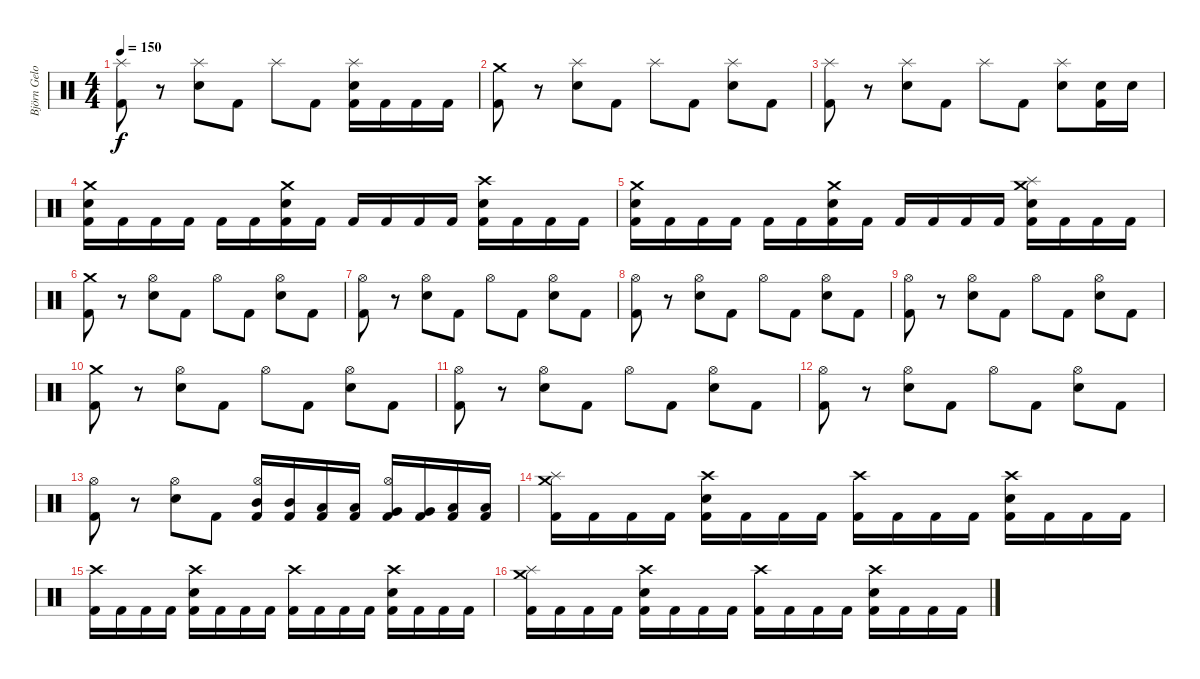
\track ("Björn Gelotte" "Björn Gelo") {instrument percussion}
\staff {score}
\articulation defaults
\ts (4 4)
\tempo 150
\clef neutral
\ks c
("Splash (hit)" "Kick (hit) 2").8{dy f} r.8 ("Splash (hit)" "Electric Snare (hit)").8 "Kick (hit) 2".8 "Splash (hit)".8 "Kick (hit) 2".8 ("Splash (hit)" "Electric Snare (hit)" "Kick (hit) 2").16 "Kick (hit) 2".16 "Kick (hit) 2".16 "Kick (hit) 2".16 |
("Crash medium (hit)" "Kick (hit) 2").8 r.8 ("Splash (hit)" "Electric Snare (hit)").8 "Kick (hit) 2".8 "Splash (hit)".8 "Kick (hit) 2".8 ("Splash (hit)" "Electric Snare (hit)").8 "Kick (hit) 2".8 |
("Splash (hit)" "Kick (hit) 2").8 r.8 ("Splash (hit)" "Electric Snare (hit)").8 "Kick (hit) 2".8 "Splash (hit)".8 "Kick (hit) 2".8 ("Splash (hit)" "Electric Snare (hit)").8 ("Electric Snare (hit)" "Kick (hit) 2").16 "Electric Snare (hit)".16 |
("Crash medium (hit)" "Electric Snare (hit)" "Kick (hit) 2").16 "Kick (hit) 2".16 "Kick (hit) 2".16 "Kick (hit) 2".16 "Kick (hit) 2".16 "Kick (hit) 2".16 ("Crash medium (hit)" "Electric Snare (hit)" "Kick (hit) 2").16 "Kick (hit) 2".16 "Kick (hit) 2".16 "Kick (hit) 2".16 "Kick (hit) 2".16 "Kick (hit) 2".16 ("Crash high (hit)" "Electric Snare (hit)" "Kick (hit) 2").16 "Kick (hit) 2".16 "Kick (hit) 2".16 "Kick (hit) 2".16 |
("Crash medium (hit)" "Electric Snare (hit)" "Kick (hit) 2").16 "Kick (hit) 2".16 "Kick (hit) 2".16 "Kick (hit) 2".16 "Kick (hit) 2".16 "Kick (hit) 2".16 ("Crash medium (hit)" "Electric Snare (hit)" "Kick (hit) 2").16 "Kick (hit) 2".16 "Kick (hit) 2".16 "Kick (hit) 2".16 "Kick (hit) 2".16 "Kick (hit) 2".16 ("Crash medium (hit)" "Splash (hit)" "Electric Snare (hit)" "Kick (hit) 2").16 "Kick (hit) 2".16 "Kick (hit) 2".16 "Kick (hit) 2".16 |
("Crash medium (hit)" "Kick (hit) 2").8 r.8 ("Hi-Hat (open)" "Electric Snare (hit)").8 "Kick (hit) 2".8 "Hi-Hat (open)".8 "Kick (hit) 2".8 ("Hi-Hat (open)" "Electric Snare (hit)").8 "Kick (hit) 2".8 |
("Hi-Hat (open)" "Kick (hit) 2").8 r.8 ("Hi-Hat (open)" "Electric Snare (hit)").8 "Kick (hit) 2".8 "Hi-Hat (open)".8 "Kick (hit) 2".8 ("Hi-Hat (open)" "Electric Snare (hit)").8 "Kick (hit) 2".8 |
("Hi-Hat (open)" "Kick (hit) 2").8 r.8 ("Hi-Hat (open)" "Electric Snare (hit)").8 "Kick (hit) 2".8 "Hi-Hat (open)".8 "Kick (hit) 2".8 ("Hi-Hat (open)" "Electric Snare (hit)").8 "Kick (hit) 2".8 |
("Hi-Hat (open)" "Kick (hit) 2").8 r.8 ("Hi-Hat (open)" "Electric Snare (hit)").8 "Kick (hit) 2".8 "Hi-Hat (open)".8 "Kick (hit) 2".8 ("Hi-Hat (open)" "Electric Snare (hit)").8 "Kick (hit) 2".8 |
("Crash medium (hit)" "Kick (hit) 2").8 r.8 ("Hi-Hat (open)" "Electric Snare (hit)").8 "Kick (hit) 2".8 "Hi-Hat (open)".8 "Kick (hit) 2".8 ("Hi-Hat (open)" "Electric Snare (hit)").8 "Kick (hit) 2".8 |
("Hi-Hat (open)" "Kick (hit) 2").8 r.8 ("Hi-Hat (open)" "Electric Snare (hit)").8 "Kick (hit) 2".8 "Hi-Hat (open)".8 "Kick (hit) 2".8 ("Hi-Hat (open)" "Electric Snare (hit)").8 "Kick (hit) 2".8 |
("Hi-Hat (open)" "Kick (hit) 2").8 r.8 ("Hi-Hat (open)" "Electric Snare (hit)").8 "Kick (hit) 2".8 "Hi-Hat (open)".8 "Kick (hit) 2".8 ("Hi-Hat (open)" "Electric Snare (hit)").8 "Kick (hit) 2".8 |
("Hi-Hat (open)" "Kick (hit) 2").8 r.8 ("Hi-Hat (open)" "Electric Snare (hit)").8 "Kick (hit) 2".8 ("Hi-Hat (open)" "Mid Tom (hit)" "Kick (hit) 2").16 ("Mid Tom (hit)" "Kick (hit) 2").16 ("Low Tom (hit)" "Kick (hit) 2").16 ("Low Tom (hit)" "Kick (hit) 2").16 ("Hi-Hat (open)" "Very Low Tom (hit)" "Kick (hit) 2").16 ("Very Low Tom (hit)" "Kick (hit) 2").16 ("Low Floor Tom (hit)" "Kick (hit) 2").16 ("Low Floor Tom (hit)" "Kick (hit) 2").16 |
("Crash medium (hit)" "Splash (hit)" "Kick (hit) 2").16 "Kick (hit) 2".16 "Kick (hit) 2".16 "Kick (hit) 2".16 ("Crash high (hit)" "Electric Snare (hit)" "Kick (hit) 2").16 "Kick (hit) 2".16 "Kick (hit) 2".16 "Kick (hit) 2".16 ("Crash high (hit)" "Kick (hit) 2").16 "Kick (hit) 2".16 "Kick (hit) 2".16 "Kick (hit) 2".16 ("Crash high (hit)" "Electric Snare (hit)" "Kick (hit) 2").16 "Kick (hit) 2".16 "Kick (hit) 2".16 "Kick (hit) 2".16 |
("Crash high (hit)" "Kick (hit) 2").16 "Kick (hit) 2".16 "Kick (hit) 2".16 "Kick (hit) 2".16 ("Crash high (hit)" "Electric Snare (hit)" "Kick (hit) 2").16 "Kick (hit) 2".16 "Kick (hit) 2".16 "Kick (hit) 2".16 ("Crash high (hit)" "Kick (hit) 2").16 "Kick (hit) 2".16 "Kick (hit) 2".16 "Kick (hit) 2".16 ("Crash high (hit)" "Electric Snare (hit)" "Kick (hit) 2").16 "Kick (hit) 2".16 "Kick (hit) 2".16 "Kick (hit) 2".16 |
("Crash medium (hit)" "Splash (hit)" "Kick (hit) 2").16 "Kick (hit) 2".16 "Kick (hit) 2".16 "Kick (hit) 2".16 ("Crash high (hit)" "Electric Snare (hit)" "Kick (hit) 2").16 "Kick (hit) 2".16 "Kick (hit) 2".16 "Kick (hit) 2".16 ("Crash high (hit)" "Kick (hit) 2").16 "Kick (hit) 2".16 "Kick (hit) 2".16 "Kick (hit) 2".16 ("Crash high (hit)" "Electric Snare (hit)" "Kick (hit) 2").16 "Kick (hit) 2".16 "Kick (hit) 2".16 "Kick (hit) 2".16
